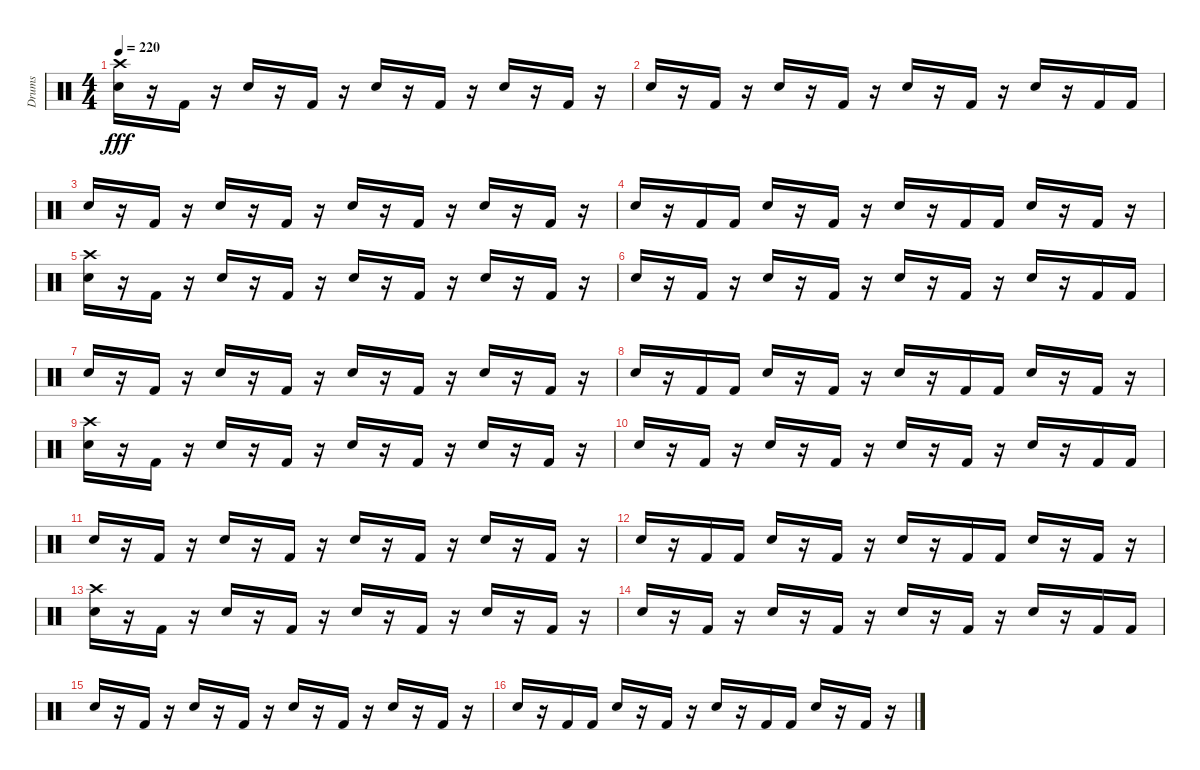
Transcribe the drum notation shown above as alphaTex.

\track ("Drums" "Drums") {instrument percussion}
\staff {score}
\articulation defaults
\ts (4 4)
\tempo 220
\clef neutral
\ks c
("Crash high (hit)" "Snare (hit) 2").16{dy fff} r.16 "Kick (hit) 2".16 r.16 "Snare (hit) 2".16 r.16 "Kick (hit) 2".16 r.16 "Snare (hit) 2".16 r.16 "Kick (hit) 2".16 r.16 "Snare (hit) 2".16 r.16 "Kick (hit) 2".16 r.16 |
"Snare (hit) 2".16 r.16 "Kick (hit) 2".16 r.16 "Snare (hit) 2".16 r.16 "Kick (hit) 2".16 r.16 "Snare (hit) 2".16 r.16 "Kick (hit) 2".16 r.16 "Snare (hit) 2".16 r.16 "Kick (hit) 2".16 "Kick (hit) 2".16 |
"Snare (hit) 2".16 r.16 "Kick (hit) 2".16 r.16 "Snare (hit) 2".16 r.16 "Kick (hit) 2".16 r.16 "Snare (hit) 2".16 r.16 "Kick (hit) 2".16 r.16 "Snare (hit) 2".16 r.16 "Kick (hit) 2".16 r.16 |
"Snare (hit) 2".16 r.16 "Kick (hit) 2".16 "Kick (hit) 2".16 "Snare (hit) 2".16 r.16 "Kick (hit) 2".16 r.16 "Snare (hit) 2".16 r.16 "Kick (hit) 2".16 "Kick (hit) 2".16 "Snare (hit) 2".16 r.16 "Kick (hit) 2".16 r.16 |
("Crash high (hit)" "Snare (hit) 2").16 r.16 "Kick (hit) 2".16 r.16 "Snare (hit) 2".16 r.16 "Kick (hit) 2".16 r.16 "Snare (hit) 2".16 r.16 "Kick (hit) 2".16 r.16 "Snare (hit) 2".16 r.16 "Kick (hit) 2".16 r.16 |
"Snare (hit) 2".16 r.16 "Kick (hit) 2".16 r.16 "Snare (hit) 2".16 r.16 "Kick (hit) 2".16 r.16 "Snare (hit) 2".16 r.16 "Kick (hit) 2".16 r.16 "Snare (hit) 2".16 r.16 "Kick (hit) 2".16 "Kick (hit) 2".16 |
"Snare (hit) 2".16 r.16 "Kick (hit) 2".16 r.16 "Snare (hit) 2".16 r.16 "Kick (hit) 2".16 r.16 "Snare (hit) 2".16 r.16 "Kick (hit) 2".16 r.16 "Snare (hit) 2".16 r.16 "Kick (hit) 2".16 r.16 |
"Snare (hit) 2".16 r.16 "Kick (hit) 2".16 "Kick (hit) 2".16 "Snare (hit) 2".16 r.16 "Kick (hit) 2".16 r.16 "Snare (hit) 2".16 r.16 "Kick (hit) 2".16 "Kick (hit) 2".16 "Snare (hit) 2".16 r.16 "Kick (hit) 2".16 r.16 |
("Crash high (hit)" "Snare (hit) 2").16 r.16 "Kick (hit) 2".16 r.16 "Snare (hit) 2".16 r.16 "Kick (hit) 2".16 r.16 "Snare (hit) 2".16 r.16 "Kick (hit) 2".16 r.16 "Snare (hit) 2".16 r.16 "Kick (hit) 2".16 r.16 |
"Snare (hit) 2".16 r.16 "Kick (hit) 2".16 r.16 "Snare (hit) 2".16 r.16 "Kick (hit) 2".16 r.16 "Snare (hit) 2".16 r.16 "Kick (hit) 2".16 r.16 "Snare (hit) 2".16 r.16 "Kick (hit) 2".16 "Kick (hit) 2".16 |
"Snare (hit) 2".16 r.16 "Kick (hit) 2".16 r.16 "Snare (hit) 2".16 r.16 "Kick (hit) 2".16 r.16 "Snare (hit) 2".16 r.16 "Kick (hit) 2".16 r.16 "Snare (hit) 2".16 r.16 "Kick (hit) 2".16 r.16 |
"Snare (hit) 2".16 r.16 "Kick (hit) 2".16 "Kick (hit) 2".16 "Snare (hit) 2".16 r.16 "Kick (hit) 2".16 r.16 "Snare (hit) 2".16 r.16 "Kick (hit) 2".16 "Kick (hit) 2".16 "Snare (hit) 2".16 r.16 "Kick (hit) 2".16 r.16 |
("Crash high (hit)" "Snare (hit) 2").16 r.16 "Kick (hit) 2".16 r.16 "Snare (hit) 2".16 r.16 "Kick (hit) 2".16 r.16 "Snare (hit) 2".16 r.16 "Kick (hit) 2".16 r.16 "Snare (hit) 2".16 r.16 "Kick (hit) 2".16 r.16 |
"Snare (hit) 2".16 r.16 "Kick (hit) 2".16 r.16 "Snare (hit) 2".16 r.16 "Kick (hit) 2".16 r.16 "Snare (hit) 2".16 r.16 "Kick (hit) 2".16 r.16 "Snare (hit) 2".16 r.16 "Kick (hit) 2".16 "Kick (hit) 2".16 |
"Snare (hit) 2".16 r.16 "Kick (hit) 2".16 r.16 "Snare (hit) 2".16 r.16 "Kick (hit) 2".16 r.16 "Snare (hit) 2".16 r.16 "Kick (hit) 2".16 r.16 "Snare (hit) 2".16 r.16 "Kick (hit) 2".16 r.16 |
"Snare (hit) 2".16 r.16 "Kick (hit) 2".16 "Kick (hit) 2".16 "Snare (hit) 2".16 r.16 "Kick (hit) 2".16 r.16 "Snare (hit) 2".16 r.16 "Kick (hit) 2".16 "Kick (hit) 2".16 "Snare (hit) 2".16 r.16 "Kick (hit) 2".16 r.16
